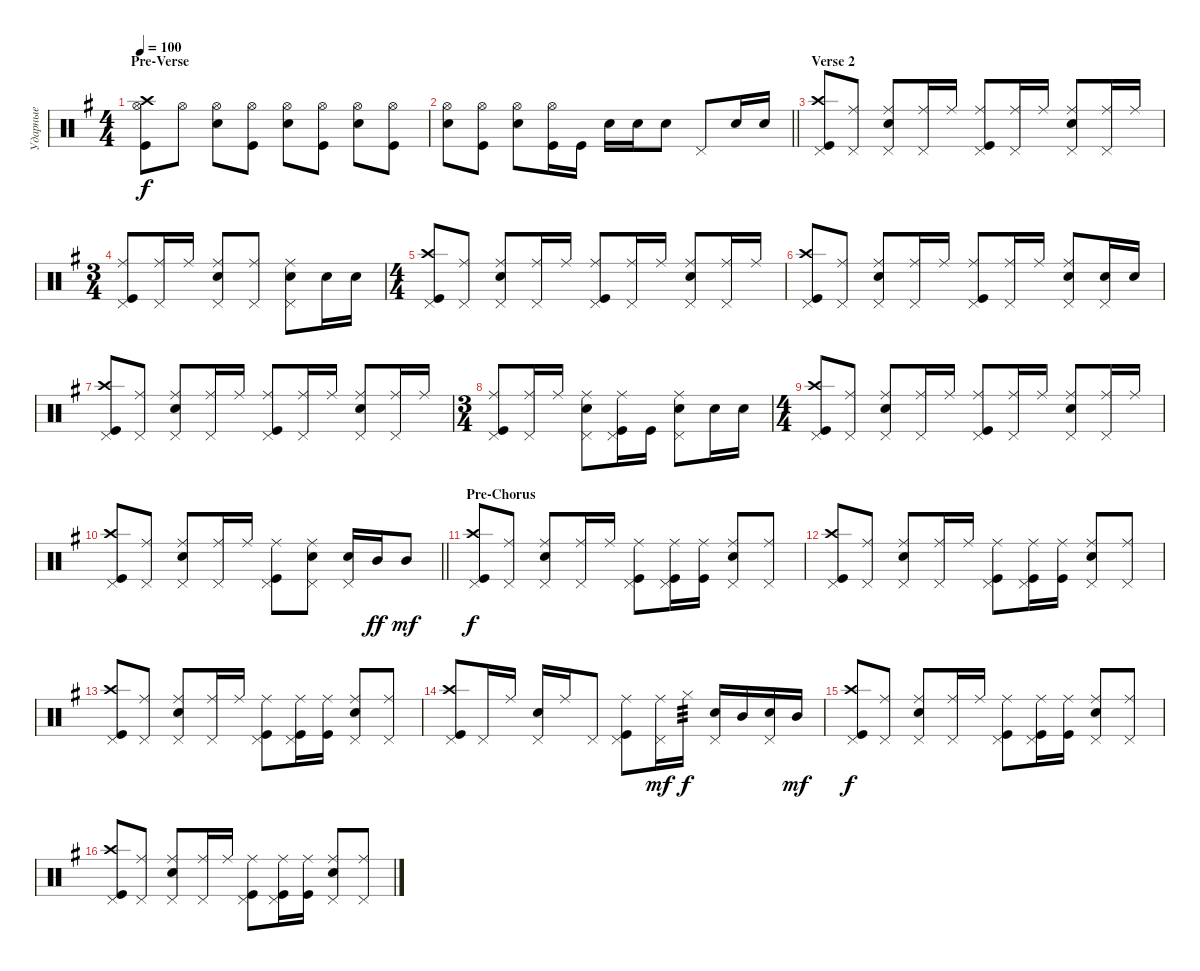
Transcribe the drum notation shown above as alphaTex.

\track ("Ударные" "Ударные") {instrument percussion}
\staff {score}
\articulation defaults
\ts (4 4)
\section ("" "Pre-Verse")
\tempo 100
\clef neutral
\ks eminor
("Kick (hit)" "Crash high (hit)" "Hi-Hat (open)").8{dy f} "Hi-Hat (open)".8 ("Hi-Hat (open)" "Snare (hit) 2").8 ("Hi-Hat (open)" "Kick (hit)").8 ("Hi-Hat (open)" "Snare (hit) 2").8 ("Hi-Hat (open)" "Kick (hit)").8 ("Hi-Hat (open)" "Snare (hit) 2").8 ("Hi-Hat (open)" "Kick (hit)").8 |
\barLineRight lightlight
("Hi-Hat (open)" "Snare (hit) 2").8 ("Hi-Hat (open)" "Kick (hit)").8 ("Hi-Hat (open)" "Snare (hit) 2").8 ("Hi-Hat (open)" "Kick (hit)").16 "Kick (hit)".16 "Snare (hit) 2".16 "Snare (hit) 2".16 "Snare (hit) 2".8 "Pedal Hi-Hat (hit)".8 "Snare (hit) 2".16 "Snare (hit) 2".16 |
\section ("" "Verse 2")
("Crash high (hit)" "Kick (hit)" "Pedal Hi-Hat (hit)").8 ("Pedal Hi-Hat (hit)" "Ride (middle)").8 ("Ride (middle)" "Snare (hit) 2" "Pedal Hi-Hat (hit)").8 ("Ride (middle)" "Pedal Hi-Hat (hit)").16 "Ride (middle)".16 ("Ride (middle)" "Kick (hit)" "Pedal Hi-Hat (hit)").8 ("Ride (middle)" "Pedal Hi-Hat (hit)").16 "Ride (middle)".16 ("Ride (middle)" "Snare (hit) 2" "Pedal Hi-Hat (hit)").8 ("Ride (middle)" "Pedal Hi-Hat (hit)").16 "Ride (middle)".16 |
\ts (3 4)
("Ride (middle)" "Kick (hit)" "Pedal Hi-Hat (hit)").8 ("Ride (middle)" "Pedal Hi-Hat (hit)").16 "Ride (middle)".16 ("Ride (middle)" "Snare (hit) 2" "Pedal Hi-Hat (hit)").8 ("Ride (middle)" "Pedal Hi-Hat (hit)").8 ("Snare (hit) 2" "Pedal Hi-Hat (hit)" "Ride (middle)").8 "Snare (hit) 2".16 "Snare (hit) 2".16 |
\ts (4 4)
("Crash high (hit)" "Kick (hit)" "Pedal Hi-Hat (hit)").8 ("Pedal Hi-Hat (hit)" "Ride (middle)").8 ("Ride (middle)" "Snare (hit) 2" "Pedal Hi-Hat (hit)").8 ("Ride (middle)" "Pedal Hi-Hat (hit)").16 "Ride (middle)".16 ("Ride (middle)" "Kick (hit)" "Pedal Hi-Hat (hit)").8 ("Ride (middle)" "Pedal Hi-Hat (hit)").16 "Ride (middle)".16 ("Ride (middle)" "Snare (hit) 2" "Pedal Hi-Hat (hit)").8 ("Ride (middle)" "Pedal Hi-Hat (hit)").16 "Ride (middle)".16 |
("Crash high (hit)" "Kick (hit)" "Pedal Hi-Hat (hit)").8 ("Pedal Hi-Hat (hit)" "Ride (middle)").8 ("Ride (middle)" "Snare (hit) 2" "Pedal Hi-Hat (hit)").8 ("Ride (middle)" "Pedal Hi-Hat (hit)").16 "Ride (middle)".16 ("Ride (middle)" "Kick (hit)" "Pedal Hi-Hat (hit)").8 ("Ride (middle)" "Pedal Hi-Hat (hit)").16 "Ride (middle)".16 ("Ride (middle)" "Snare (hit) 2" "Pedal Hi-Hat (hit)").8 ("Snare (hit) 2" "Pedal Hi-Hat (hit)").16 "Snare (hit) 2".16 |
("Crash high (hit)" "Kick (hit)" "Pedal Hi-Hat (hit)").8 ("Pedal Hi-Hat (hit)" "Ride (middle)").8 ("Ride (middle)" "Snare (hit) 2" "Pedal Hi-Hat (hit)").8 ("Ride (middle)" "Pedal Hi-Hat (hit)").16 "Ride (middle)".16 ("Ride (middle)" "Kick (hit)" "Pedal Hi-Hat (hit)").8 ("Ride (middle)" "Pedal Hi-Hat (hit)").16 "Ride (middle)".16 ("Ride (middle)" "Snare (hit) 2" "Pedal Hi-Hat (hit)").8 ("Ride (middle)" "Pedal Hi-Hat (hit)").16 "Ride (middle)".16 |
\ts (3 4)
("Ride (middle)" "Kick (hit)" "Pedal Hi-Hat (hit)").8 ("Ride (middle)" "Pedal Hi-Hat (hit)").16 "Ride (middle)".16 ("Ride (middle)" "Snare (hit) 2" "Pedal Hi-Hat (hit)").8 ("Ride (middle)" "Pedal Hi-Hat (hit)" "Kick (hit)").16 "Kick (hit)".16 ("Snare (hit) 2" "Pedal Hi-Hat (hit)" "Ride (middle)").8 "Snare (hit) 2".16 "Snare (hit) 2".16 |
\ts (4 4)
("Crash high (hit)" "Kick (hit)" "Pedal Hi-Hat (hit)").8 ("Pedal Hi-Hat (hit)" "Ride (middle)").8 ("Ride (middle)" "Snare (hit) 2" "Pedal Hi-Hat (hit)").8 ("Ride (middle)" "Pedal Hi-Hat (hit)").16 "Ride (middle)".16 ("Ride (middle)" "Kick (hit)" "Pedal Hi-Hat (hit)").8 ("Ride (middle)" "Pedal Hi-Hat (hit)").16 "Ride (middle)".16 ("Ride (middle)" "Snare (hit) 2" "Pedal Hi-Hat (hit)").8 ("Ride (middle)" "Pedal Hi-Hat (hit)").16 "Ride (middle)".16 |
\barLineRight lightlight
("Crash high (hit)" "Kick (hit)" "Pedal Hi-Hat (hit)").8 ("Pedal Hi-Hat (hit)" "Ride (middle)").8 ("Ride (middle)" "Snare (hit) 2" "Pedal Hi-Hat (hit)").8 ("Ride (middle)" "Pedal Hi-Hat (hit)").16 "Ride (middle)".16 ("Ride (middle)" "Kick (hit)" "Pedal Hi-Hat (hit)").8 ("Ride (middle)" "Pedal Hi-Hat (hit)" "Snare (hit) 2").8 ("Snare (hit) 2" "Pedal Hi-Hat (hit)").16 "Mid Tom (hit)".16{dy ff} "Mid Tom (hit)".8{dy mf} |
\section ("" "Pre-Chorus")
("Crash high (hit)" "Kick (hit)" "Pedal Hi-Hat (hit)").8{dy f} ("Pedal Hi-Hat (hit)" "Ride (middle)").8 ("Ride (middle)" "Snare (hit) 2" "Pedal Hi-Hat (hit)").8 ("Ride (middle)" "Pedal Hi-Hat (hit)").16 "Ride (middle)".16 ("Ride (middle)" "Kick (hit)" "Pedal Hi-Hat (hit)").8 ("Ride (middle)" "Pedal Hi-Hat (hit)" "Kick (hit)").16 ("Ride (middle)" "Kick (hit)").16 ("Ride (middle)" "Snare (hit) 2" "Pedal Hi-Hat (hit)").8 ("Ride (middle)" "Pedal Hi-Hat (hit)").8 |
("Crash high (hit)" "Kick (hit)" "Pedal Hi-Hat (hit)").8 ("Pedal Hi-Hat (hit)" "Ride (middle)").8 ("Ride (middle)" "Snare (hit) 2" "Pedal Hi-Hat (hit)").8 ("Ride (middle)" "Pedal Hi-Hat (hit)").16 "Ride (middle)".16 ("Ride (middle)" "Kick (hit)" "Pedal Hi-Hat (hit)").8 ("Ride (middle)" "Pedal Hi-Hat (hit)" "Kick (hit)").16 ("Ride (middle)" "Kick (hit)").16 ("Ride (middle)" "Snare (hit) 2" "Pedal Hi-Hat (hit)").8 ("Ride (middle)" "Pedal Hi-Hat (hit)").8 |
("Crash high (hit)" "Kick (hit)" "Pedal Hi-Hat (hit)").8 ("Pedal Hi-Hat (hit)" "Ride (middle)").8 ("Ride (middle)" "Snare (hit) 2" "Pedal Hi-Hat (hit)").8 ("Ride (middle)" "Pedal Hi-Hat (hit)").16 "Ride (middle)".16 ("Ride (middle)" "Kick (hit)" "Pedal Hi-Hat (hit)").8 ("Ride (middle)" "Pedal Hi-Hat (hit)" "Kick (hit)").16 ("Ride (middle)" "Kick (hit)").16 ("Ride (middle)" "Snare (hit) 2" "Pedal Hi-Hat (hit)").8 ("Ride (middle)" "Pedal Hi-Hat (hit)").8 |
("Crash high (hit)" "Kick (hit)" "Pedal Hi-Hat (hit)").8 "Pedal Hi-Hat (hit)".16 "Ride (middle)".16 ("Snare (hit) 2" "Pedal Hi-Hat (hit)").16 "Ride (middle)".16 "Pedal Hi-Hat (hit)".8 ("Ride (middle)" "Kick (hit)" "Pedal Hi-Hat (hit)").8 ("Pedal Hi-Hat (hit)" "Ride (middle)").16{dy mf} "Hi-Hat (closed)".16{tp 3 dy f} ("Snare (hit) 2" "Pedal Hi-Hat (hit)").16 "Mid Tom (hit)".16 ("Snare (hit) 2" "Pedal Hi-Hat (hit)").16 "Mid Tom (hit)".16{dy mf} |
("Crash high (hit)" "Kick (hit)" "Pedal Hi-Hat (hit)").8{dy f} ("Pedal Hi-Hat (hit)" "Ride (middle)").8 ("Ride (middle)" "Snare (hit) 2" "Pedal Hi-Hat (hit)").8 ("Ride (middle)" "Pedal Hi-Hat (hit)").16 "Ride (middle)".16 ("Ride (middle)" "Kick (hit)" "Pedal Hi-Hat (hit)").8 ("Ride (middle)" "Pedal Hi-Hat (hit)" "Kick (hit)").16 ("Ride (middle)" "Kick (hit)").16 ("Ride (middle)" "Snare (hit) 2" "Pedal Hi-Hat (hit)").8 ("Ride (middle)" "Pedal Hi-Hat (hit)").8 |
("Crash high (hit)" "Kick (hit)" "Pedal Hi-Hat (hit)").8 ("Pedal Hi-Hat (hit)" "Ride (middle)").8 ("Ride (middle)" "Snare (hit) 2" "Pedal Hi-Hat (hit)").8 ("Ride (middle)" "Pedal Hi-Hat (hit)").16 "Ride (middle)".16 ("Ride (middle)" "Kick (hit)" "Pedal Hi-Hat (hit)").8 ("Ride (middle)" "Pedal Hi-Hat (hit)" "Kick (hit)").16 ("Ride (middle)" "Kick (hit)").16 ("Ride (middle)" "Snare (hit) 2" "Pedal Hi-Hat (hit)").8 ("Ride (middle)" "Pedal Hi-Hat (hit)").8
